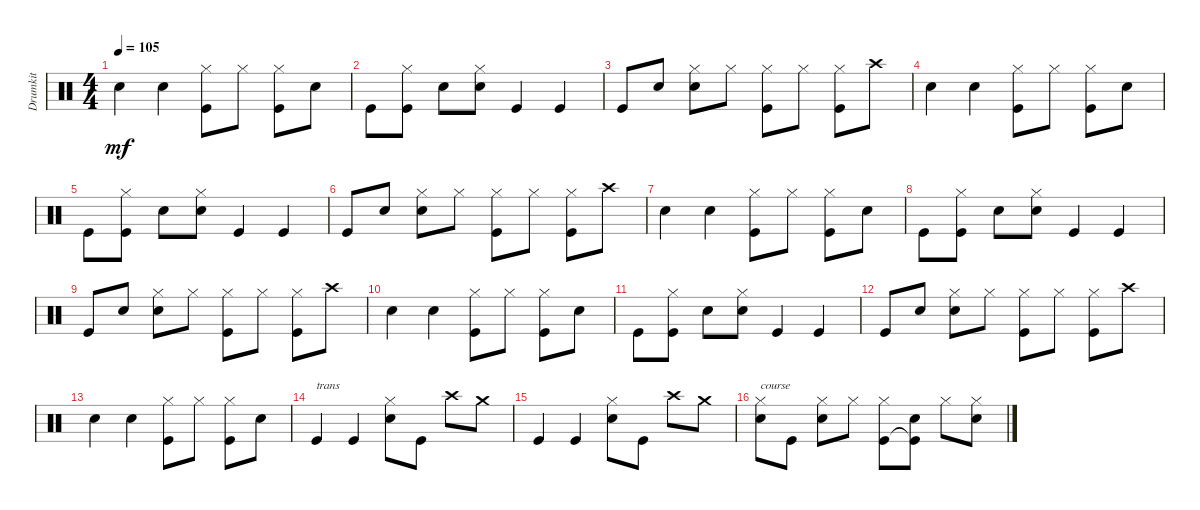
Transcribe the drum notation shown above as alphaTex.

\track ("Drumkit" "Drumkit") {instrument percussion}
\staff {score}
\articulation defaults
\ts (4 4)
\tempo 105
\clef neutral
\ks c "Snare (hit) 2".4{dy mf} "Snare (hit) 2".4
("Kick (hit)" "Hi-Hat (closed)").8 "Hi-Hat (closed)".8 ("Kick (hit)" "Hi-Hat (closed)").8 "Snare (hit) 2".8 |
"Kick (hit)".8 ("Kick (hit)" "Hi-Hat (closed)").8 "Snare (hit) 2".8 ("Snare (hit) 2" "Hi-Hat (closed)").8 "Kick (hit)".4 "Kick (hit)".4 |
"Kick (hit)".8 "Snare (hit) 2".8 ("Snare (hit) 2" "Hi-Hat (closed)").8 "Hi-Hat (closed)".8 ("Hi-Hat (closed)" "Kick (hit)").8 "Hi-Hat (closed)".8 ("Hi-Hat (closed)" "Kick (hit)").8 "Crash high (hit)".8 |
"Snare (hit) 2".4 "Snare (hit) 2".4 ("Kick (hit)" "Hi-Hat (closed)").8 "Hi-Hat (closed)".8 ("Kick (hit)" "Hi-Hat (closed)").8 "Snare (hit) 2".8 |
"Kick (hit)".8 ("Kick (hit)" "Hi-Hat (closed)").8 "Snare (hit) 2".8 ("Snare (hit) 2" "Hi-Hat (closed)").8 "Kick (hit)".4 "Kick (hit)".4 |
"Kick (hit)".8 "Snare (hit) 2".8 ("Snare (hit) 2" "Hi-Hat (closed)").8 "Hi-Hat (closed)".8 ("Hi-Hat (closed)" "Kick (hit)").8 "Hi-Hat (closed)".8 ("Hi-Hat (closed)" "Kick (hit)").8 "Crash high (hit)".8 |
"Snare (hit) 2".4 "Snare (hit) 2".4 ("Kick (hit)" "Hi-Hat (closed)").8 "Hi-Hat (closed)".8 ("Kick (hit)" "Hi-Hat (closed)").8 "Snare (hit) 2".8 |
"Kick (hit)".8 ("Kick (hit)" "Hi-Hat (closed)").8 "Snare (hit) 2".8 ("Snare (hit) 2" "Hi-Hat (closed)").8 "Kick (hit)".4 "Kick (hit)".4 |
"Kick (hit)".8 "Snare (hit) 2".8 ("Snare (hit) 2" "Hi-Hat (closed)").8 "Hi-Hat (closed)".8 ("Hi-Hat (closed)" "Kick (hit)").8 "Hi-Hat (closed)".8 ("Hi-Hat (closed)" "Kick (hit)").8 "Crash high (hit)".8 |
"Snare (hit) 2".4 "Snare (hit) 2".4 ("Kick (hit)" "Hi-Hat (closed)").8 "Hi-Hat (closed)".8 ("Kick (hit)" "Hi-Hat (closed)").8 "Snare (hit) 2".8 |
"Kick (hit)".8 ("Kick (hit)" "Hi-Hat (closed)").8 "Snare (hit) 2".8 ("Snare (hit) 2" "Hi-Hat (closed)").8 "Kick (hit)".4 "Kick (hit)".4 |
"Kick (hit)".8 "Snare (hit) 2".8 ("Snare (hit) 2" "Hi-Hat (closed)").8 "Hi-Hat (closed)".8 ("Hi-Hat (closed)" "Kick (hit)").8 "Hi-Hat (closed)".8 ("Hi-Hat (closed)" "Kick (hit)").8 "Crash high (hit)".8 |
"Snare (hit) 2".4 "Snare (hit) 2".4 ("Kick (hit)" "Hi-Hat (closed)").8 "Hi-Hat (closed)".8 ("Kick (hit)" "Hi-Hat (closed)").8 "Snare (hit) 2".8 |
"Kick (hit)".4{txt "trans"} "Kick (hit)".4 ("Snare (hit) 2" "Hi-Hat (closed)").8 "Kick (hit)".8 "Crash high (hit)".8 "Crash medium (hit)".8 |
"Kick (hit)".4 "Kick (hit)".4 ("Snare (hit) 2" "Hi-Hat (closed)").8 "Kick (hit)".8 "Crash high (hit)".8 "Crash medium (hit)".8 |
("Snare (hit) 2" "Hi-Hat (closed)").8{txt "course"} "Kick (hit)".8 ("Hi-Hat (closed)" "Snare (hit) 2").8 "Hi-Hat (closed)".8 ("Kick (hit)" "Hi-Hat (closed)").8 ("Kick (hit)"{t} "Snare (hit) 2").8 "Hi-Hat (closed)".8 ("Hi-Hat (closed)" "Snare (hit) 2").8
